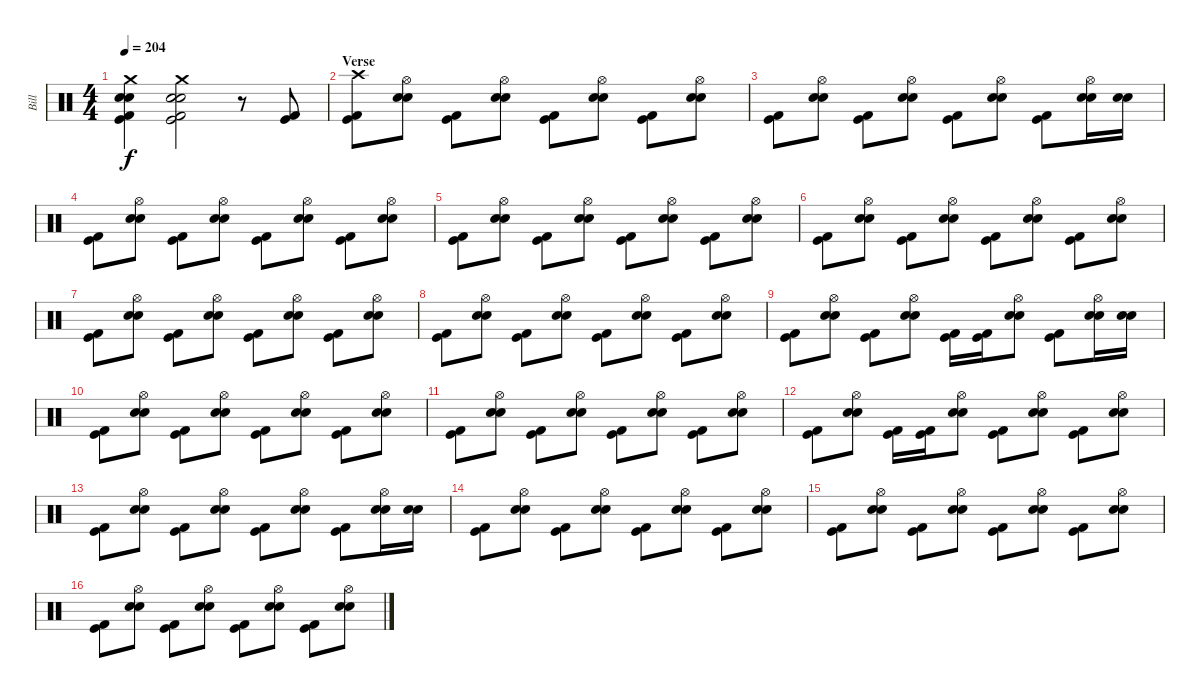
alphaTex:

\track ("Bill" "Bill") {instrument percussion}
\staff {score}
\articulation defaults
\ts (4 4)
\tempo 204
\clef neutral
\ks c
("Crash medium (hit)" "Snare (hit) 2" "Electric Snare (hit)" "Kick (hit)" "Kick (hit) 2").4{dy f} ("Crash medium (hit)" "Snare (hit) 2" "Electric Snare (hit)" "Kick (hit)" "Kick (hit) 2").2 r.8 ("Kick (hit)" "Kick (hit) 2").8 |
\section ("" "Verse")
("Crash high (hit)" "Kick (hit)" "Kick (hit) 2").8 ("Hi-Hat (open)" "Snare (hit) 2" "Electric Snare (hit)").8 ("Kick (hit)" "Kick (hit) 2").8 ("Hi-Hat (open)" "Snare (hit) 2" "Electric Snare (hit)").8 ("Kick (hit)" "Kick (hit) 2").8 ("Hi-Hat (open)" "Snare (hit) 2" "Electric Snare (hit)").8 ("Kick (hit)" "Kick (hit) 2").8 ("Hi-Hat (open)" "Snare (hit) 2" "Electric Snare (hit)").8 |
("Kick (hit)" "Kick (hit) 2").8 ("Hi-Hat (open)" "Snare (hit) 2" "Electric Snare (hit)").8 ("Kick (hit)" "Kick (hit) 2").8 ("Hi-Hat (open)" "Snare (hit) 2" "Electric Snare (hit)").8 ("Kick (hit)" "Kick (hit) 2").8 ("Hi-Hat (open)" "Snare (hit) 2" "Electric Snare (hit)").8 ("Kick (hit)" "Kick (hit) 2").8 ("Hi-Hat (open)" "Snare (hit) 2" "Electric Snare (hit)").16 ("Snare (hit) 2" "Electric Snare (hit)").16 |
("Kick (hit)" "Kick (hit) 2").8 ("Hi-Hat (open)" "Snare (hit) 2" "Electric Snare (hit)").8 ("Kick (hit)" "Kick (hit) 2").8 ("Hi-Hat (open)" "Snare (hit) 2" "Electric Snare (hit)").8 ("Kick (hit)" "Kick (hit) 2").8 ("Hi-Hat (open)" "Snare (hit) 2" "Electric Snare (hit)").8 ("Kick (hit)" "Kick (hit) 2").8 ("Hi-Hat (open)" "Snare (hit) 2" "Electric Snare (hit)").8 |
("Kick (hit)" "Kick (hit) 2").8 ("Hi-Hat (open)" "Snare (hit) 2" "Electric Snare (hit)").8 ("Kick (hit)" "Kick (hit) 2").8 ("Hi-Hat (open)" "Snare (hit) 2" "Electric Snare (hit)").8 ("Kick (hit)" "Kick (hit) 2").8 ("Hi-Hat (open)" "Snare (hit) 2" "Electric Snare (hit)").8 ("Kick (hit)" "Kick (hit) 2").8 ("Hi-Hat (open)" "Snare (hit) 2" "Electric Snare (hit)").8 |
("Kick (hit)" "Kick (hit) 2").8 ("Hi-Hat (open)" "Snare (hit) 2" "Electric Snare (hit)").8 ("Kick (hit)" "Kick (hit) 2").8 ("Hi-Hat (open)" "Snare (hit) 2" "Electric Snare (hit)").8 ("Kick (hit)" "Kick (hit) 2").8 ("Hi-Hat (open)" "Snare (hit) 2" "Electric Snare (hit)").8 ("Kick (hit)" "Kick (hit) 2").8 ("Hi-Hat (open)" "Snare (hit) 2" "Electric Snare (hit)").8 |
("Kick (hit)" "Kick (hit) 2").8 ("Hi-Hat (open)" "Snare (hit) 2" "Electric Snare (hit)").8 ("Kick (hit)" "Kick (hit) 2").8 ("Hi-Hat (open)" "Snare (hit) 2" "Electric Snare (hit)").8 ("Kick (hit)" "Kick (hit) 2").8 ("Hi-Hat (open)" "Snare (hit) 2" "Electric Snare (hit)").8 ("Kick (hit)" "Kick (hit) 2").8 ("Hi-Hat (open)" "Snare (hit) 2" "Electric Snare (hit)").8 |
("Kick (hit)" "Kick (hit) 2").8 ("Hi-Hat (open)" "Snare (hit) 2" "Electric Snare (hit)").8 ("Kick (hit)" "Kick (hit) 2").8 ("Hi-Hat (open)" "Snare (hit) 2" "Electric Snare (hit)").8 ("Kick (hit)" "Kick (hit) 2").8 ("Hi-Hat (open)" "Snare (hit) 2" "Electric Snare (hit)").8 ("Kick (hit)" "Kick (hit) 2").8 ("Hi-Hat (open)" "Snare (hit) 2" "Electric Snare (hit)").8 |
("Kick (hit)" "Kick (hit) 2").8 ("Hi-Hat (open)" "Snare (hit) 2" "Electric Snare (hit)").8 ("Kick (hit)" "Kick (hit) 2").8 ("Hi-Hat (open)" "Snare (hit) 2" "Electric Snare (hit)").8 ("Kick (hit)" "Kick (hit) 2").16 ("Kick (hit)" "Kick (hit) 2").16 ("Hi-Hat (open)" "Snare (hit) 2" "Electric Snare (hit)").8 ("Kick (hit)" "Kick (hit) 2").8 ("Hi-Hat (open)" "Snare (hit) 2" "Electric Snare (hit)").16 ("Snare (hit) 2" "Electric Snare (hit)").16 |
("Kick (hit)" "Kick (hit) 2").8 ("Hi-Hat (open)" "Snare (hit) 2" "Electric Snare (hit)").8 ("Kick (hit)" "Kick (hit) 2").8 ("Hi-Hat (open)" "Snare (hit) 2" "Electric Snare (hit)").8 ("Kick (hit)" "Kick (hit) 2").8 ("Hi-Hat (open)" "Snare (hit) 2" "Electric Snare (hit)").8 ("Kick (hit)" "Kick (hit) 2").8 ("Hi-Hat (open)" "Snare (hit) 2" "Electric Snare (hit)").8 |
("Kick (hit)" "Kick (hit) 2").8 ("Hi-Hat (open)" "Snare (hit) 2" "Electric Snare (hit)").8 ("Kick (hit)" "Kick (hit) 2").8 ("Hi-Hat (open)" "Snare (hit) 2" "Electric Snare (hit)").8 ("Kick (hit)" "Kick (hit) 2").8 ("Hi-Hat (open)" "Snare (hit) 2" "Electric Snare (hit)").8 ("Kick (hit)" "Kick (hit) 2").8 ("Hi-Hat (open)" "Snare (hit) 2" "Electric Snare (hit)").8 |
("Kick (hit)" "Kick (hit) 2").8 ("Hi-Hat (open)" "Snare (hit) 2" "Electric Snare (hit)").8 ("Kick (hit)" "Kick (hit) 2").16 ("Kick (hit)" "Kick (hit) 2").16 ("Hi-Hat (open)" "Snare (hit) 2" "Electric Snare (hit)").8 ("Kick (hit)" "Kick (hit) 2").8 ("Hi-Hat (open)" "Snare (hit) 2" "Electric Snare (hit)").8 ("Kick (hit)" "Kick (hit) 2").8 ("Hi-Hat (open)" "Snare (hit) 2" "Electric Snare (hit)").8 |
("Kick (hit)" "Kick (hit) 2").8 ("Hi-Hat (open)" "Snare (hit) 2" "Electric Snare (hit)").8 ("Kick (hit)" "Kick (hit) 2").8 ("Hi-Hat (open)" "Snare (hit) 2" "Electric Snare (hit)").8 ("Kick (hit)" "Kick (hit) 2").8 ("Hi-Hat (open)" "Snare (hit) 2" "Electric Snare (hit)").8 ("Kick (hit)" "Kick (hit) 2").8 ("Hi-Hat (open)" "Snare (hit) 2" "Electric Snare (hit)").16 ("Snare (hit) 2" "Electric Snare (hit)").16 |
("Kick (hit)" "Kick (hit) 2").8 ("Hi-Hat (open)" "Snare (hit) 2" "Electric Snare (hit)").8 ("Kick (hit)" "Kick (hit) 2").8 ("Hi-Hat (open)" "Snare (hit) 2" "Electric Snare (hit)").8 ("Kick (hit)" "Kick (hit) 2").8 ("Hi-Hat (open)" "Snare (hit) 2" "Electric Snare (hit)").8 ("Kick (hit)" "Kick (hit) 2").8 ("Hi-Hat (open)" "Snare (hit) 2" "Electric Snare (hit)").8 |
("Kick (hit)" "Kick (hit) 2").8 ("Hi-Hat (open)" "Snare (hit) 2" "Electric Snare (hit)").8 ("Kick (hit)" "Kick (hit) 2").8 ("Hi-Hat (open)" "Snare (hit) 2" "Electric Snare (hit)").8 ("Kick (hit)" "Kick (hit) 2").8 ("Hi-Hat (open)" "Snare (hit) 2" "Electric Snare (hit)").8 ("Kick (hit)" "Kick (hit) 2").8 ("Hi-Hat (open)" "Snare (hit) 2" "Electric Snare (hit)").8 |
("Kick (hit)" "Kick (hit) 2").8 ("Hi-Hat (open)" "Snare (hit) 2" "Electric Snare (hit)").8 ("Kick (hit)" "Kick (hit) 2").8 ("Hi-Hat (open)" "Snare (hit) 2" "Electric Snare (hit)").8 ("Kick (hit)" "Kick (hit) 2").8 ("Hi-Hat (open)" "Snare (hit) 2" "Electric Snare (hit)").8 ("Kick (hit)" "Kick (hit) 2").8 ("Hi-Hat (open)" "Snare (hit) 2" "Electric Snare (hit)").8
